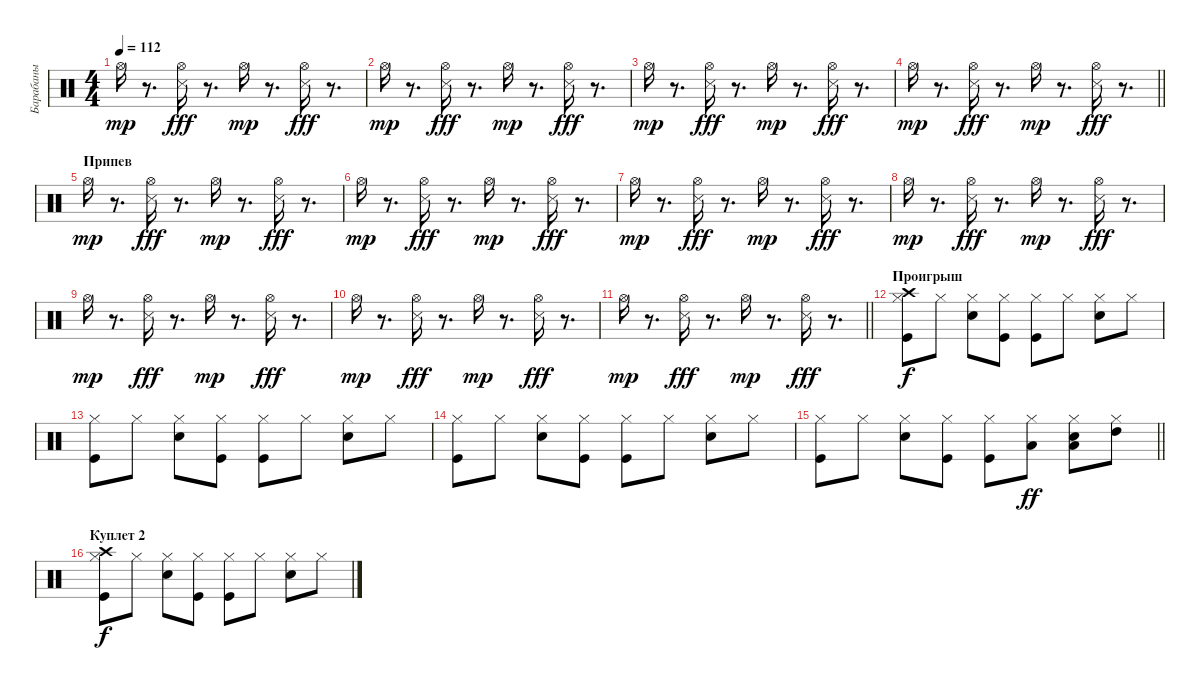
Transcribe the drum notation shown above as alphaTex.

\track ("Барабаны" "Барабаны") {instrument percussion}
\staff {score}
\articulation defaults
\ts (4 4)
\tempo 112
\clef neutral
\ks c "Hi-Hat (open)".16{dy mp}
r.8{d} ("Hi-Hat (open)" "Snare (side stick) 3").16{dy fff} r.8{d} "Hi-Hat (open)".16{dy mp} r.8{d} ("Hi-Hat (open)" "Snare (side stick) 3").16{dy fff} r.8{d} |
"Hi-Hat (open)".16{dy mp} r.8{d} ("Hi-Hat (open)" "Snare (side stick) 3").16{dy fff} r.8{d} "Hi-Hat (open)".16{dy mp} r.8{d} ("Hi-Hat (open)" "Snare (side stick) 3").16{dy fff} r.8{d} |
"Hi-Hat (open)".16{dy mp} r.8{d} ("Hi-Hat (open)" "Snare (side stick) 3").16{dy fff} r.8{d} "Hi-Hat (open)".16{dy mp} r.8{d} ("Hi-Hat (open)" "Snare (side stick) 3").16{dy fff} r.8{d} |
\barLineRight lightlight "Hi-Hat (open)".16{dy mp}
r.8{d} ("Hi-Hat (open)" "Snare (side stick) 3").16{dy fff} r.8{d} "Hi-Hat (open)".16{dy mp} r.8{d} ("Hi-Hat (open)" "Snare (side stick) 3").16{dy fff} r.8{d} |
\section ("" "Припев")
"Hi-Hat (open)".16{dy mp} r.8{d} ("Hi-Hat (open)" "Snare (side stick) 3").16{dy fff} r.8{d} "Hi-Hat (open)".16{dy mp} r.8{d} ("Hi-Hat (open)" "Snare (side stick) 3").16{dy fff} r.8{d} |
"Hi-Hat (open)".16{dy mp} r.8{d} ("Hi-Hat (open)" "Snare (side stick) 3").16{dy fff} r.8{d} "Hi-Hat (open)".16{dy mp} r.8{d} ("Hi-Hat (open)" "Snare (side stick) 3").16{dy fff} r.8{d} |
"Hi-Hat (open)".16{dy mp} r.8{d} ("Hi-Hat (open)" "Snare (side stick) 3").16{dy fff} r.8{d} "Hi-Hat (open)".16{dy mp} r.8{d} ("Hi-Hat (open)" "Snare (side stick) 3").16{dy fff} r.8{d} |
"Hi-Hat (open)".16{dy mp} r.8{d} ("Hi-Hat (open)" "Snare (side stick) 3").16{dy fff} r.8{d} "Hi-Hat (open)".16{dy mp} r.8{d} ("Hi-Hat (open)" "Snare (side stick) 3").16{dy fff} r.8{d} |
"Hi-Hat (open)".16{dy mp} r.8{d} ("Hi-Hat (open)" "Snare (side stick) 3").16{dy fff} r.8{d} "Hi-Hat (open)".16{dy mp} r.8{d} ("Hi-Hat (open)" "Snare (side stick) 3").16{dy fff} r.8{d} |
"Hi-Hat (open)".16{dy mp} r.8{d} ("Hi-Hat (open)" "Snare (side stick) 3").16{dy fff} r.8{d} "Hi-Hat (open)".16{dy mp} r.8{d} ("Hi-Hat (open)" "Snare (side stick) 3").16{dy fff} r.8{d} |
\barLineRight lightlight "Hi-Hat (open)".16{dy mp}
r.8{d} ("Hi-Hat (open)" "Snare (side stick) 3").16{dy fff} r.8{d} "Hi-Hat (open)".16{dy mp} r.8{d} ("Hi-Hat (open)" "Snare (side stick) 3").16{dy fff} r.8{d} |
\section ("" "Проигрыш")
("Kick (hit)" "Hi-Hat (closed)" "Crash high (hit)").8{dy f} "Hi-Hat (closed)".8 ("Snare (hit) 2" "Hi-Hat (closed)").8 ("Kick (hit)" "Hi-Hat (closed)").8 ("Kick (hit)" "Hi-Hat (closed)").8 "Hi-Hat (closed)".8 ("Snare (hit) 2" "Hi-Hat (closed)").8 "Hi-Hat (closed)".8 |
("Kick (hit)" "Hi-Hat (closed)").8 "Hi-Hat (closed)".8 ("Snare (hit) 2" "Hi-Hat (closed)").8 ("Kick (hit)" "Hi-Hat (closed)").8 ("Kick (hit)" "Hi-Hat (closed)").8 "Hi-Hat (closed)".8 ("Snare (hit) 2" "Hi-Hat (closed)").8 "Hi-Hat (closed)".8 |
("Kick (hit)" "Hi-Hat (closed)").8 "Hi-Hat (closed)".8 ("Snare (hit) 2" "Hi-Hat (closed)").8 ("Kick (hit)" "Hi-Hat (closed)").8 ("Kick (hit)" "Hi-Hat (closed)").8 "Hi-Hat (closed)".8 ("Snare (hit) 2" "Hi-Hat (closed)").8 "Hi-Hat (closed)".8 |
\barLineRight lightlight
("Kick (hit)" "Hi-Hat (closed)").8 "Hi-Hat (closed)".8 ("Snare (hit) 2" "Hi-Hat (closed)").8 ("Kick (hit)" "Hi-Hat (closed)").8 ("Kick (hit)" "Hi-Hat (closed)").8 ("Hi-Hat (closed)" "Low Floor Tom (hit)").8{dy ff} ("Snare (hit) 2" "Hi-Hat (closed)" "Low Tom (hit)").8 ("Hi-Hat (closed)" "High Tom (hit)").8 |
\section ("" "Куплет 2")
("Kick (hit)" "Hi-Hat (closed)" "Crash high (hit)").8{dy f} "Hi-Hat (closed)".8 ("Snare (hit) 2" "Hi-Hat (closed)").8 ("Kick (hit)" "Hi-Hat (closed)").8 ("Kick (hit)" "Hi-Hat (closed)").8 "Hi-Hat (closed)".8 ("Snare (hit) 2" "Hi-Hat (closed)").8 "Hi-Hat (closed)".8
